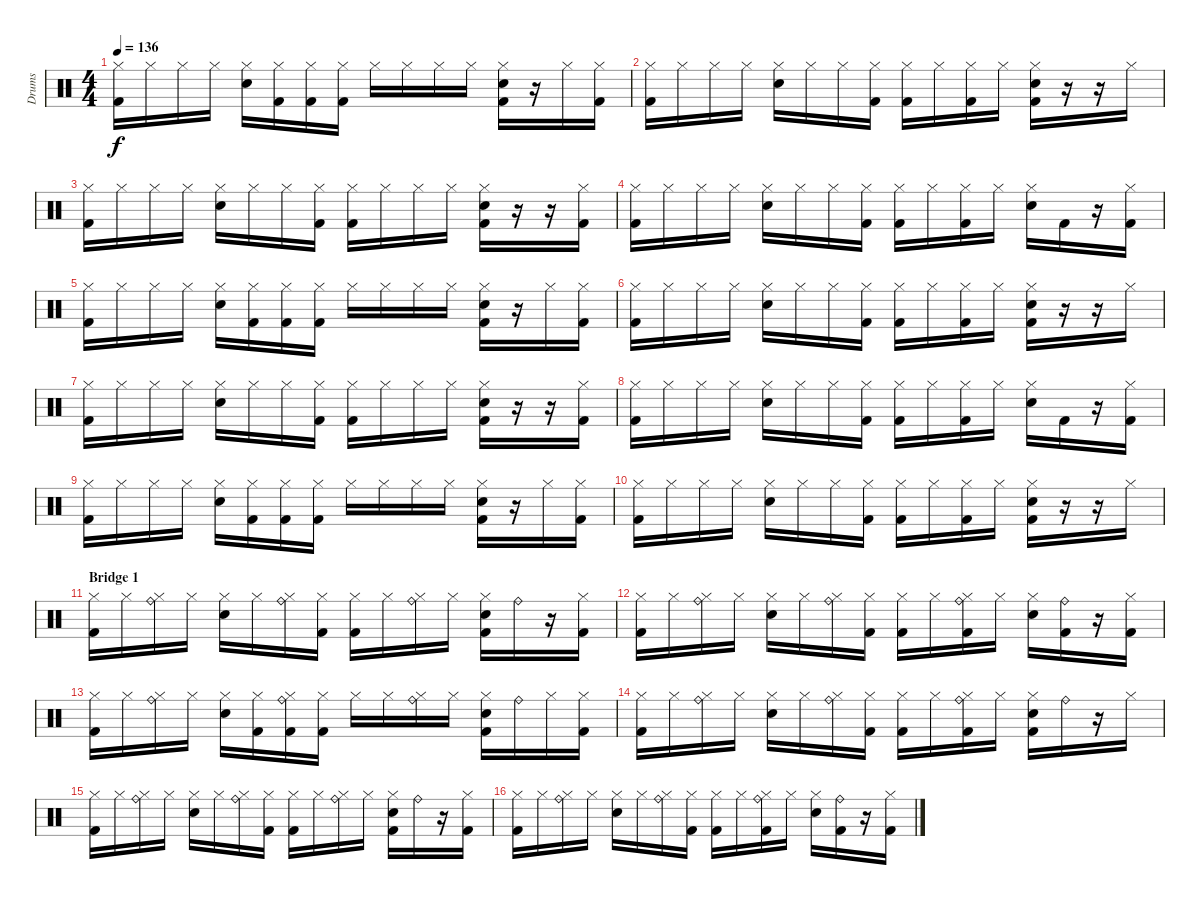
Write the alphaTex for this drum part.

\track ("Drums" "Drums") {instrument percussion}
\staff {score}
\articulation defaults
\ts (4 4)
\tempo 136
\clef neutral
\ks c
("Hi-Hat (closed)" "Kick (hit) 2").16{dy f} "Hi-Hat (closed)".16 "Hi-Hat (closed)".16 "Hi-Hat (closed)".16 ("Electric Snare (hit)" "Hi-Hat (closed)").16 ("Hi-Hat (closed)" "Kick (hit) 2").16 ("Hi-Hat (closed)" "Kick (hit) 2").16 ("Hi-Hat (closed)" "Kick (hit) 2").16 "Hi-Hat (closed)".16 "Hi-Hat (closed)".16 "Hi-Hat (closed)".16 "Hi-Hat (closed)".16 ("Electric Snare (hit)" "Hi-Hat (closed)" "Kick (hit) 2").16 r.16 "Hi-Hat (closed)".16 ("Hi-Hat (closed)" "Kick (hit) 2").16 |
("Hi-Hat (closed)" "Kick (hit) 2").16 "Hi-Hat (closed)".16 "Hi-Hat (closed)".16 "Hi-Hat (closed)".16 ("Electric Snare (hit)" "Hi-Hat (closed)").16 "Hi-Hat (closed)".16 "Hi-Hat (closed)".16 ("Hi-Hat (closed)" "Kick (hit) 2").16 ("Hi-Hat (closed)" "Kick (hit) 2").16 "Hi-Hat (closed)".16 ("Hi-Hat (closed)" "Kick (hit) 2").16 "Hi-Hat (closed)".16 ("Electric Snare (hit)" "Hi-Hat (closed)" "Kick (hit) 2").16 r.16 r.16 "Hi-Hat (closed)".16 |
("Hi-Hat (closed)" "Kick (hit) 2").16 "Hi-Hat (closed)".16 "Hi-Hat (closed)".16 "Hi-Hat (closed)".16 ("Electric Snare (hit)" "Hi-Hat (closed)").16 "Hi-Hat (closed)".16 "Hi-Hat (closed)".16 ("Hi-Hat (closed)" "Kick (hit) 2").16 ("Hi-Hat (closed)" "Kick (hit) 2").16 "Hi-Hat (closed)".16 "Hi-Hat (closed)".16 "Hi-Hat (closed)".16 ("Electric Snare (hit)" "Hi-Hat (closed)" "Kick (hit) 2").16 r.16 r.16 ("Hi-Hat (closed)" "Kick (hit) 2").16 |
("Hi-Hat (closed)" "Kick (hit) 2").16 "Hi-Hat (closed)".16 "Hi-Hat (closed)".16 "Hi-Hat (closed)".16 ("Electric Snare (hit)" "Hi-Hat (closed)").16 "Hi-Hat (closed)".16 "Hi-Hat (closed)".16 ("Hi-Hat (closed)" "Kick (hit) 2").16 ("Hi-Hat (closed)" "Kick (hit) 2").16 "Hi-Hat (closed)".16 ("Hi-Hat (closed)" "Kick (hit) 2").16 "Hi-Hat (closed)".16 ("Electric Snare (hit)" "Hi-Hat (closed)").16 "Kick (hit) 2".16 r.16 ("Hi-Hat (closed)" "Kick (hit) 2").16 |
("Hi-Hat (closed)" "Kick (hit) 2").16 "Hi-Hat (closed)".16 "Hi-Hat (closed)".16 "Hi-Hat (closed)".16 ("Electric Snare (hit)" "Hi-Hat (closed)").16 ("Hi-Hat (closed)" "Kick (hit) 2").16 ("Hi-Hat (closed)" "Kick (hit) 2").16 ("Hi-Hat (closed)" "Kick (hit) 2").16 "Hi-Hat (closed)".16 "Hi-Hat (closed)".16 "Hi-Hat (closed)".16 "Hi-Hat (closed)".16 ("Electric Snare (hit)" "Hi-Hat (closed)" "Kick (hit) 2").16 r.16 "Hi-Hat (closed)".16 ("Hi-Hat (closed)" "Kick (hit) 2").16 |
("Hi-Hat (closed)" "Kick (hit) 2").16 "Hi-Hat (closed)".16 "Hi-Hat (closed)".16 "Hi-Hat (closed)".16 ("Electric Snare (hit)" "Hi-Hat (closed)").16 "Hi-Hat (closed)".16 "Hi-Hat (closed)".16 ("Hi-Hat (closed)" "Kick (hit) 2").16 ("Hi-Hat (closed)" "Kick (hit) 2").16 "Hi-Hat (closed)".16 ("Hi-Hat (closed)" "Kick (hit) 2").16 "Hi-Hat (closed)".16 ("Electric Snare (hit)" "Hi-Hat (closed)" "Kick (hit) 2").16 r.16 r.16 "Hi-Hat (closed)".16 |
("Hi-Hat (closed)" "Kick (hit) 2").16 "Hi-Hat (closed)".16 "Hi-Hat (closed)".16 "Hi-Hat (closed)".16 ("Electric Snare (hit)" "Hi-Hat (closed)").16 "Hi-Hat (closed)".16 "Hi-Hat (closed)".16 ("Hi-Hat (closed)" "Kick (hit) 2").16 ("Hi-Hat (closed)" "Kick (hit) 2").16 "Hi-Hat (closed)".16 "Hi-Hat (closed)".16 "Hi-Hat (closed)".16 ("Electric Snare (hit)" "Hi-Hat (closed)" "Kick (hit) 2").16 r.16 r.16 ("Hi-Hat (closed)" "Kick (hit) 2").16 |
("Hi-Hat (closed)" "Kick (hit) 2").16 "Hi-Hat (closed)".16 "Hi-Hat (closed)".16 "Hi-Hat (closed)".16 ("Electric Snare (hit)" "Hi-Hat (closed)").16 "Hi-Hat (closed)".16 "Hi-Hat (closed)".16 ("Hi-Hat (closed)" "Kick (hit) 2").16 ("Hi-Hat (closed)" "Kick (hit) 2").16 "Hi-Hat (closed)".16 ("Hi-Hat (closed)" "Kick (hit) 2").16 "Hi-Hat (closed)".16 ("Electric Snare (hit)" "Hi-Hat (closed)").16 "Kick (hit) 2".16 r.16 ("Hi-Hat (closed)" "Kick (hit) 2").16 |
("Hi-Hat (closed)" "Kick (hit) 2").16 "Hi-Hat (closed)".16 "Hi-Hat (closed)".16 "Hi-Hat (closed)".16 ("Electric Snare (hit)" "Hi-Hat (closed)").16 ("Hi-Hat (closed)" "Kick (hit) 2").16 ("Hi-Hat (closed)" "Kick (hit) 2").16 ("Hi-Hat (closed)" "Kick (hit) 2").16 "Hi-Hat (closed)".16 "Hi-Hat (closed)".16 "Hi-Hat (closed)".16 "Hi-Hat (closed)".16 ("Electric Snare (hit)" "Hi-Hat (closed)" "Kick (hit) 2").16 r.16 "Hi-Hat (closed)".16 ("Hi-Hat (closed)" "Kick (hit) 2").16 |
("Hi-Hat (closed)" "Kick (hit) 2").16 "Hi-Hat (closed)".16 "Hi-Hat (closed)".16 "Hi-Hat (closed)".16 ("Electric Snare (hit)" "Hi-Hat (closed)").16 "Hi-Hat (closed)".16 "Hi-Hat (closed)".16 ("Hi-Hat (closed)" "Kick (hit) 2").16 ("Hi-Hat (closed)" "Kick (hit) 2").16 "Hi-Hat (closed)".16 ("Hi-Hat (closed)" "Kick (hit) 2").16 "Hi-Hat (closed)".16 ("Electric Snare (hit)" "Hi-Hat (closed)" "Kick (hit) 2").16 r.16 r.16 "Hi-Hat (closed)".16 |
\section ("" "Bridge 1")
("Hi-Hat (closed)" "Kick (hit) 2").16 "Hi-Hat (closed)".16 ("Ride (bell)" "Hi-Hat (closed)").16 "Hi-Hat (closed)".16 ("Electric Snare (hit)" "Hi-Hat (closed)").16 "Hi-Hat (closed)".16 ("Ride (bell)" "Hi-Hat (closed)").16 ("Hi-Hat (closed)" "Kick (hit) 2").16 ("Hi-Hat (closed)" "Kick (hit) 2").16 "Hi-Hat (closed)".16 ("Ride (bell)" "Hi-Hat (closed)").16 "Hi-Hat (closed)".16 ("Electric Snare (hit)" "Hi-Hat (closed)" "Kick (hit) 2").16 "Ride (bell)".16 r.16 ("Hi-Hat (closed)" "Kick (hit) 2").16 |
("Hi-Hat (closed)" "Kick (hit) 2").16 "Hi-Hat (closed)".16 ("Ride (bell)" "Hi-Hat (closed)").16 "Hi-Hat (closed)".16 ("Electric Snare (hit)" "Hi-Hat (closed)").16 "Hi-Hat (closed)".16 ("Ride (bell)" "Hi-Hat (closed)").16 ("Hi-Hat (closed)" "Kick (hit) 2").16 ("Hi-Hat (closed)" "Kick (hit) 2").16 "Hi-Hat (closed)".16 ("Ride (bell)" "Hi-Hat (closed)" "Kick (hit) 2").16 "Hi-Hat (closed)".16 ("Electric Snare (hit)" "Hi-Hat (closed)").16 ("Ride (bell)" "Kick (hit) 2").16 r.16 ("Hi-Hat (closed)" "Kick (hit) 2").16 |
("Hi-Hat (closed)" "Kick (hit) 2").16 "Hi-Hat (closed)".16 ("Ride (bell)" "Hi-Hat (closed)").16 "Hi-Hat (closed)".16 ("Electric Snare (hit)" "Hi-Hat (closed)").16 ("Hi-Hat (closed)" "Kick (hit) 2").16 ("Ride (bell)" "Hi-Hat (closed)" "Kick (hit) 2").16 ("Hi-Hat (closed)" "Kick (hit) 2").16 "Hi-Hat (closed)".16 "Hi-Hat (closed)".16 ("Ride (bell)" "Hi-Hat (closed)").16 "Hi-Hat (closed)".16 ("Electric Snare (hit)" "Hi-Hat (closed)" "Kick (hit) 2").16 "Ride (bell)".16 "Hi-Hat (closed)".16 ("Hi-Hat (closed)" "Kick (hit) 2").16 |
("Hi-Hat (closed)" "Kick (hit) 2").16 "Hi-Hat (closed)".16 ("Ride (bell)" "Hi-Hat (closed)").16 "Hi-Hat (closed)".16 ("Electric Snare (hit)" "Hi-Hat (closed)").16 "Hi-Hat (closed)".16 ("Ride (bell)" "Hi-Hat (closed)").16 ("Hi-Hat (closed)" "Kick (hit) 2").16 ("Hi-Hat (closed)" "Kick (hit) 2").16 "Hi-Hat (closed)".16 ("Ride (bell)" "Hi-Hat (closed)" "Kick (hit) 2").16 "Hi-Hat (closed)".16 ("Electric Snare (hit)" "Hi-Hat (closed)" "Kick (hit) 2").16 "Ride (bell)".16 r.16 "Hi-Hat (closed)".16 |
("Hi-Hat (closed)" "Kick (hit) 2").16 "Hi-Hat (closed)".16 ("Ride (bell)" "Hi-Hat (closed)").16 "Hi-Hat (closed)".16 ("Electric Snare (hit)" "Hi-Hat (closed)").16 "Hi-Hat (closed)".16 ("Ride (bell)" "Hi-Hat (closed)").16 ("Hi-Hat (closed)" "Kick (hit) 2").16 ("Hi-Hat (closed)" "Kick (hit) 2").16 "Hi-Hat (closed)".16 ("Ride (bell)" "Hi-Hat (closed)").16 "Hi-Hat (closed)".16 ("Electric Snare (hit)" "Hi-Hat (closed)" "Kick (hit) 2").16 "Ride (bell)".16 r.16 ("Hi-Hat (closed)" "Kick (hit) 2").16 |
("Hi-Hat (closed)" "Kick (hit) 2").16 "Hi-Hat (closed)".16 ("Ride (bell)" "Hi-Hat (closed)").16 "Hi-Hat (closed)".16 ("Electric Snare (hit)" "Hi-Hat (closed)").16 "Hi-Hat (closed)".16 ("Ride (bell)" "Hi-Hat (closed)").16 ("Hi-Hat (closed)" "Kick (hit) 2").16 ("Hi-Hat (closed)" "Kick (hit) 2").16 "Hi-Hat (closed)".16 ("Ride (bell)" "Hi-Hat (closed)" "Kick (hit) 2").16 "Hi-Hat (closed)".16 ("Electric Snare (hit)" "Hi-Hat (closed)").16 ("Ride (bell)" "Kick (hit) 2").16 r.16 ("Hi-Hat (closed)" "Kick (hit) 2").16
